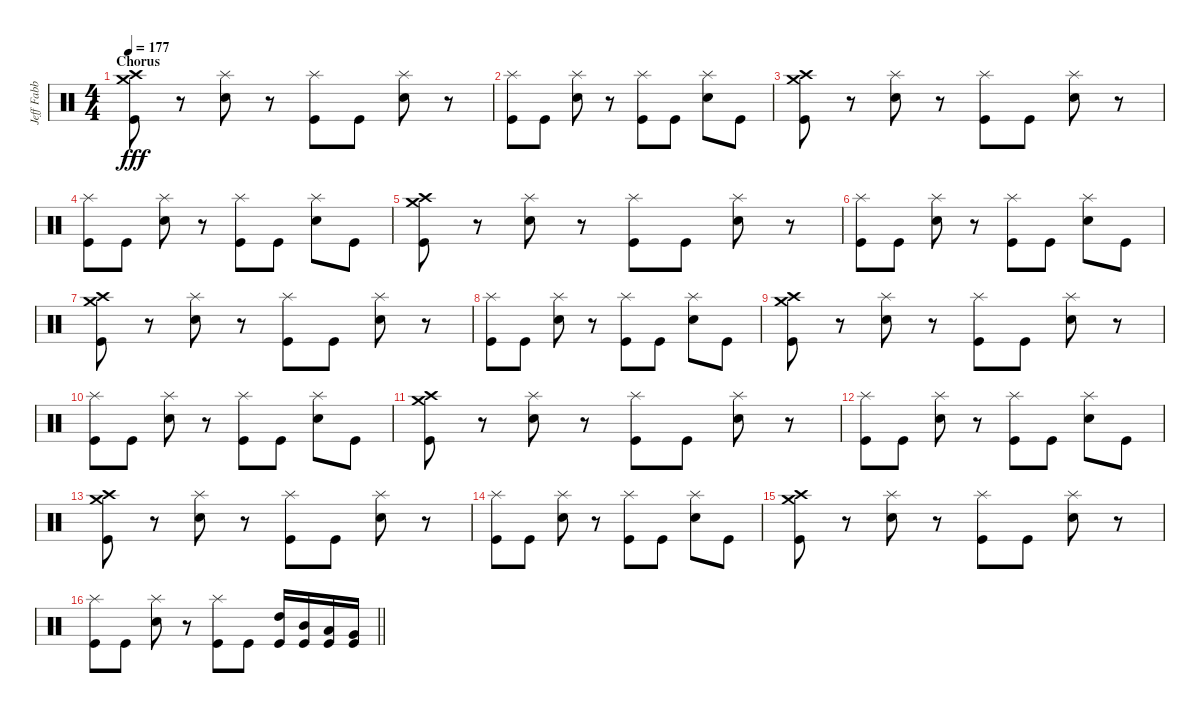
\track ("Jeff Fabb (Drums)" "Jeff Fabb ") {instrument percussion}
\staff {score}
\articulation defaults
\ts (4 4)
\section ("" "Chorus")
\tempo 177
\clef neutral
\ks c
("Crash high (hit)" "Crash medium (hit)" "Kick (hit)").8{dy fff} r.8 ("Splash (hit)" "Electric Snare (hit)").8 r.8 ("Splash (hit)" "Kick (hit)").8 "Kick (hit)".8 ("Splash (hit)" "Electric Snare (hit)").8 r.8 |
("Splash (hit)" "Kick (hit)").8 "Kick (hit)".8 ("Splash (hit)" "Electric Snare (hit)").8 r.8 ("Splash (hit)" "Kick (hit)").8 "Kick (hit)".8 ("Splash (hit)" "Electric Snare (hit)").8 "Kick (hit)".8 |
("Crash high (hit)" "Crash medium (hit)" "Kick (hit)").8 r.8 ("Splash (hit)" "Electric Snare (hit)").8 r.8 ("Splash (hit)" "Kick (hit)").8 "Kick (hit)".8 ("Splash (hit)" "Electric Snare (hit)").8 r.8 |
("Splash (hit)" "Kick (hit)").8 "Kick (hit)".8 ("Splash (hit)" "Electric Snare (hit)").8 r.8 ("Splash (hit)" "Kick (hit)").8 "Kick (hit)".8 ("Splash (hit)" "Electric Snare (hit)").8 "Kick (hit)".8 |
("Crash high (hit)" "Crash medium (hit)" "Kick (hit)").8 r.8 ("Splash (hit)" "Electric Snare (hit)").8 r.8 ("Splash (hit)" "Kick (hit)").8 "Kick (hit)".8 ("Splash (hit)" "Electric Snare (hit)").8 r.8 |
("Splash (hit)" "Kick (hit)").8 "Kick (hit)".8 ("Splash (hit)" "Electric Snare (hit)").8 r.8 ("Splash (hit)" "Kick (hit)").8 "Kick (hit)".8 ("Splash (hit)" "Electric Snare (hit)").8 "Kick (hit)".8 |
("Crash high (hit)" "Crash medium (hit)" "Kick (hit)").8 r.8 ("Splash (hit)" "Electric Snare (hit)").8 r.8 ("Splash (hit)" "Kick (hit)").8 "Kick (hit)".8 ("Splash (hit)" "Electric Snare (hit)").8 r.8 |
("Splash (hit)" "Kick (hit)").8 "Kick (hit)".8 ("Splash (hit)" "Electric Snare (hit)").8 r.8 ("Splash (hit)" "Kick (hit)").8 "Kick (hit)".8 ("Splash (hit)" "Electric Snare (hit)").8 "Kick (hit)".8 |
("Crash high (hit)" "Crash medium (hit)" "Kick (hit)").8 r.8 ("Splash (hit)" "Electric Snare (hit)").8 r.8 ("Splash (hit)" "Kick (hit)").8 "Kick (hit)".8 ("Splash (hit)" "Electric Snare (hit)").8 r.8 |
("Splash (hit)" "Kick (hit)").8 "Kick (hit)".8 ("Splash (hit)" "Electric Snare (hit)").8 r.8 ("Splash (hit)" "Kick (hit)").8 "Kick (hit)".8 ("Splash (hit)" "Electric Snare (hit)").8 "Kick (hit)".8 |
("Crash high (hit)" "Crash medium (hit)" "Kick (hit)").8 r.8 ("Splash (hit)" "Electric Snare (hit)").8 r.8 ("Splash (hit)" "Kick (hit)").8 "Kick (hit)".8 ("Splash (hit)" "Electric Snare (hit)").8 r.8 |
("Splash (hit)" "Kick (hit)").8 "Kick (hit)".8 ("Splash (hit)" "Electric Snare (hit)").8 r.8 ("Splash (hit)" "Kick (hit)").8 "Kick (hit)".8 ("Splash (hit)" "Electric Snare (hit)").8 "Kick (hit)".8 |
("Crash high (hit)" "Crash medium (hit)" "Kick (hit)").8 r.8 ("Splash (hit)" "Electric Snare (hit)").8 r.8 ("Splash (hit)" "Kick (hit)").8 "Kick (hit)".8 ("Splash (hit)" "Electric Snare (hit)").8 r.8 |
("Splash (hit)" "Kick (hit)").8 "Kick (hit)".8 ("Splash (hit)" "Electric Snare (hit)").8 r.8 ("Splash (hit)" "Kick (hit)").8 "Kick (hit)".8 ("Splash (hit)" "Electric Snare (hit)").8 "Kick (hit)".8 |
("Crash high (hit)" "Crash medium (hit)" "Kick (hit)").8 r.8 ("Splash (hit)" "Electric Snare (hit)").8 r.8 ("Splash (hit)" "Kick (hit)").8 "Kick (hit)".8 ("Splash (hit)" "Electric Snare (hit)").8 r.8 |
\barLineRight lightlight
("Splash (hit)" "Kick (hit)").8 "Kick (hit)".8 ("Splash (hit)" "Electric Snare (hit)").8 r.8 ("Splash (hit)" "Kick (hit)").8 "Kick (hit)".8 ("High Tom (hit)" "Kick (hit)").16 ("Mid Tom (hit)" "Kick (hit)").16 ("Low Tom (hit)" "Kick (hit)").16 ("Very Low Tom (hit)" "Kick (hit)").16
